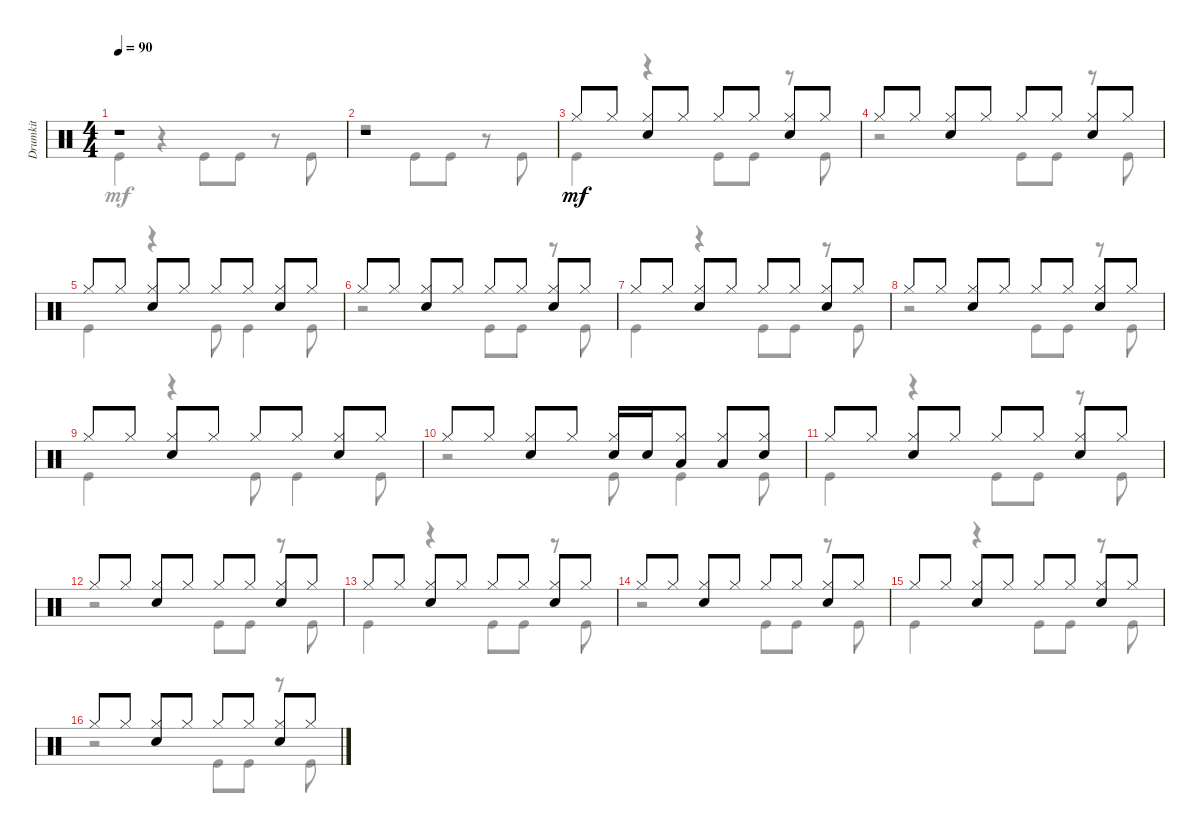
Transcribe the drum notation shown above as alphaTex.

\track ("Drumkit" "Drumkit") {instrument percussion}
\staff {score}
\articulation defaults
\voice
\ts (4 4)
\tempo 90
\clef neutral
\ks c
r.1{dy mf} |
r.1 |
"Hi-Hat (closed)".8 "Hi-Hat (closed)".8 ("Snare (hit) 2" "Hi-Hat (closed)").8 "Hi-Hat (closed)".8 "Hi-Hat (closed)".8 "Hi-Hat (closed)".8 ("Snare (hit) 2" "Hi-Hat (closed)").8 "Hi-Hat (closed)".8 |
"Hi-Hat (closed)".8 "Hi-Hat (closed)".8 ("Snare (hit) 2" "Hi-Hat (closed)").8 "Hi-Hat (closed)".8 "Hi-Hat (closed)".8 "Hi-Hat (closed)".8 ("Snare (hit) 2" "Hi-Hat (closed)").8 "Hi-Hat (closed)".8 |
"Hi-Hat (closed)".8 "Hi-Hat (closed)".8 ("Snare (hit) 2" "Hi-Hat (closed)").8 "Hi-Hat (closed)".8 "Hi-Hat (closed)".8 "Hi-Hat (closed)".8 ("Snare (hit) 2" "Hi-Hat (closed)").8 "Hi-Hat (closed)".8 |
"Hi-Hat (closed)".8 "Hi-Hat (closed)".8 ("Snare (hit) 2" "Hi-Hat (closed)").8 "Hi-Hat (closed)".8 "Hi-Hat (closed)".8 "Hi-Hat (closed)".8 ("Snare (hit) 2" "Hi-Hat (closed)").8 "Hi-Hat (closed)".8 |
"Hi-Hat (closed)".8 "Hi-Hat (closed)".8 ("Snare (hit) 2" "Hi-Hat (closed)").8 "Hi-Hat (closed)".8 "Hi-Hat (closed)".8 "Hi-Hat (closed)".8 ("Snare (hit) 2" "Hi-Hat (closed)").8 "Hi-Hat (closed)".8 |
"Hi-Hat (closed)".8 "Hi-Hat (closed)".8 ("Snare (hit) 2" "Hi-Hat (closed)").8 "Hi-Hat (closed)".8 "Hi-Hat (closed)".8 "Hi-Hat (closed)".8 ("Snare (hit) 2" "Hi-Hat (closed)").8 "Hi-Hat (closed)".8 |
"Hi-Hat (closed)".8 "Hi-Hat (closed)".8 ("Snare (hit) 2" "Hi-Hat (closed)").8 "Hi-Hat (closed)".8 "Hi-Hat (closed)".8 "Hi-Hat (closed)".8 ("Snare (hit) 2" "Hi-Hat (closed)").8 "Hi-Hat (closed)".8 |
"Hi-Hat (closed)".8 "Hi-Hat (closed)".8 ("Snare (hit) 2" "Hi-Hat (closed)").8 "Hi-Hat (closed)".8 ("Snare (hit) 2" "Hi-Hat (closed)").16 "Snare (hit) 2".16 ("Low Tom (hit)" "Hi-Hat (closed)").8 ("Low Floor Tom (hit)" "Hi-Hat (closed)").8 ("Snare (hit) 2" "Hi-Hat (closed)").8 |
"Hi-Hat (closed)".8 "Hi-Hat (closed)".8 ("Snare (hit) 2" "Hi-Hat (closed)").8 "Hi-Hat (closed)".8 "Hi-Hat (closed)".8 "Hi-Hat (closed)".8 ("Snare (hit) 2" "Hi-Hat (closed)").8 "Hi-Hat (closed)".8 |
"Hi-Hat (closed)".8 "Hi-Hat (closed)".8 ("Snare (hit) 2" "Hi-Hat (closed)").8 "Hi-Hat (closed)".8 "Hi-Hat (closed)".8 "Hi-Hat (closed)".8 ("Snare (hit) 2" "Hi-Hat (closed)").8 "Hi-Hat (closed)".8 |
"Hi-Hat (closed)".8 "Hi-Hat (closed)".8 ("Snare (hit) 2" "Hi-Hat (closed)").8 "Hi-Hat (closed)".8 "Hi-Hat (closed)".8 "Hi-Hat (closed)".8 ("Snare (hit) 2" "Hi-Hat (closed)").8 "Hi-Hat (closed)".8 |
"Hi-Hat (closed)".8 "Hi-Hat (closed)".8 ("Snare (hit) 2" "Hi-Hat (closed)").8 "Hi-Hat (closed)".8 "Hi-Hat (closed)".8 "Hi-Hat (closed)".8 ("Snare (hit) 2" "Hi-Hat (closed)").8 "Hi-Hat (closed)".8 |
"Hi-Hat (closed)".8 "Hi-Hat (closed)".8 ("Snare (hit) 2" "Hi-Hat (closed)").8 "Hi-Hat (closed)".8 "Hi-Hat (closed)".8 "Hi-Hat (closed)".8 ("Snare (hit) 2" "Hi-Hat (closed)").8 "Hi-Hat (closed)".8 |
"Hi-Hat (closed)".8 "Hi-Hat (closed)".8 ("Snare (hit) 2" "Hi-Hat (closed)").8 "Hi-Hat (closed)".8 "Hi-Hat (closed)".8 "Hi-Hat (closed)".8 ("Snare (hit) 2" "Hi-Hat (closed)").8 "Hi-Hat (closed)".8
\voice
\clef neutral
\ottava regular
\simile none
\ks c "Kick (hit)".4{dy mf}
r.4 "Kick (hit)".8 "Kick (hit)".8 r.8 "Kick (hit)".8 |
r.2 "Kick (hit)".8 "Kick (hit)".8 r.8 "Kick (hit)".8 |
"Kick (hit)".4 r.4 "Kick (hit)".8 "Kick (hit)".8 r.8 "Kick (hit)".8 |
r.2 "Kick (hit)".8 "Kick (hit)".8 r.8 "Kick (hit)".8 |
"Kick (hit)".4 r.4 "Kick (hit)".8 "Kick (hit)".4 "Kick (hit)".8 |
r.2 "Kick (hit)".8 "Kick (hit)".8 r.8 "Kick (hit)".8 |
"Kick (hit)".4 r.4 "Kick (hit)".8 "Kick (hit)".8 r.8 "Kick (hit)".8 |
r.2 "Kick (hit)".8 "Kick (hit)".8 r.8 "Kick (hit)".8 |
"Kick (hit)".4 r.4 "Kick (hit)".8 "Kick (hit)".4 "Kick (hit)".8 |
r.2 "Kick (hit)".8 "Kick (hit)".4 "Kick (hit)".8 |
"Kick (hit)".4 r.4 "Kick (hit)".8 "Kick (hit)".8 r.8 "Kick (hit)".8 |
r.2 "Kick (hit)".8 "Kick (hit)".8 r.8 "Kick (hit)".8 |
"Kick (hit)".4 r.4 "Kick (hit)".8 "Kick (hit)".8 r.8 "Kick (hit)".8 |
r.2 "Kick (hit)".8 "Kick (hit)".8 r.8 "Kick (hit)".8 |
"Kick (hit)".4 r.4 "Kick (hit)".8 "Kick (hit)".8 r.8 "Kick (hit)".8 |
r.2 "Kick (hit)".8 "Kick (hit)".8 r.8 "Kick (hit)".8
